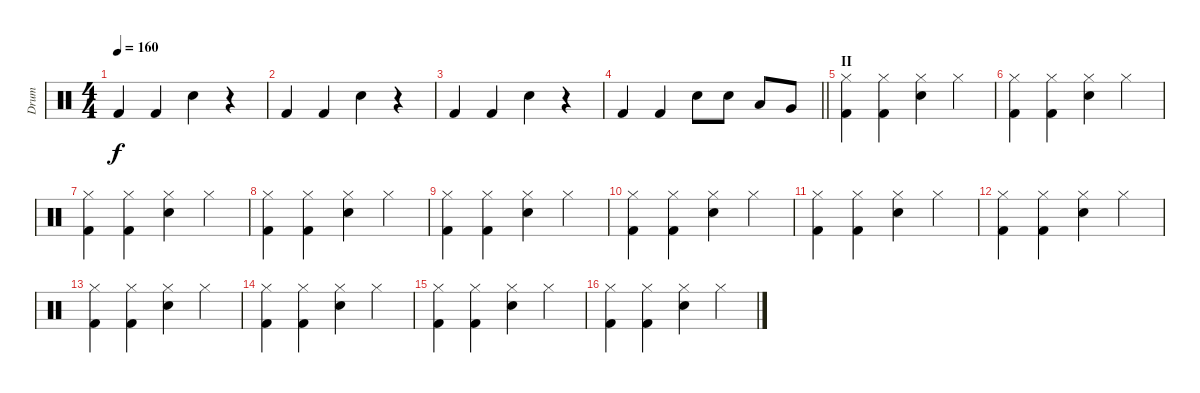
\track ("Drum" "Drum") {instrument percussion}
\staff {score}
\articulation defaults
\ts (4 4)
\tempo 160
\clef neutral
\ks c "Kick (hit) 2".4{dy f} "Kick (hit) 2".4 "Electric Snare (hit)".4
r.4 |
"Kick (hit) 2".4 "Kick (hit) 2".4 "Electric Snare (hit)".4 r.4 |
"Kick (hit) 2".4 "Kick (hit) 2".4 "Electric Snare (hit)".4 r.4 |
\barLineRight lightlight "Kick (hit) 2".4 "Kick (hit) 2".4 "Electric Snare (hit)".8 "Electric Snare (hit)".8 "Low Floor Tom (hit)".8 "Very Low Tom (hit)".8
|
\section ("" "II")
("Hi-Hat (closed)" "Kick (hit) 2").4 ("Hi-Hat (closed)" "Kick (hit) 2").4 ("Hi-Hat (closed)" "Electric Snare (hit)").4 "Hi-Hat (closed)".4 |
("Hi-Hat (closed)" "Kick (hit) 2").4 ("Hi-Hat (closed)" "Kick (hit) 2").4 ("Hi-Hat (closed)" "Electric Snare (hit)").4 "Hi-Hat (closed)".4 |
("Hi-Hat (closed)" "Kick (hit) 2").4 ("Hi-Hat (closed)" "Kick (hit) 2").4 ("Hi-Hat (closed)" "Electric Snare (hit)").4 "Hi-Hat (closed)".4 |
("Hi-Hat (closed)" "Kick (hit) 2").4 ("Hi-Hat (closed)" "Kick (hit) 2").4 ("Hi-Hat (closed)" "Electric Snare (hit)").4 "Hi-Hat (closed)".4 |
("Hi-Hat (closed)" "Kick (hit) 2").4 ("Hi-Hat (closed)" "Kick (hit) 2").4 ("Hi-Hat (closed)" "Electric Snare (hit)").4 "Hi-Hat (closed)".4 |
("Hi-Hat (closed)" "Kick (hit) 2").4 ("Hi-Hat (closed)" "Kick (hit) 2").4 ("Hi-Hat (closed)" "Electric Snare (hit)").4 "Hi-Hat (closed)".4 |
("Hi-Hat (closed)" "Kick (hit) 2").4 ("Hi-Hat (closed)" "Kick (hit) 2").4 ("Hi-Hat (closed)" "Electric Snare (hit)").4 "Hi-Hat (closed)".4 |
("Hi-Hat (closed)" "Kick (hit) 2").4 ("Hi-Hat (closed)" "Kick (hit) 2").4 ("Hi-Hat (closed)" "Electric Snare (hit)").4 "Hi-Hat (closed)".4 |
("Hi-Hat (closed)" "Kick (hit) 2").4 ("Hi-Hat (closed)" "Kick (hit) 2").4 ("Hi-Hat (closed)" "Electric Snare (hit)").4 "Hi-Hat (closed)".4 |
("Hi-Hat (closed)" "Kick (hit) 2").4 ("Hi-Hat (closed)" "Kick (hit) 2").4 ("Hi-Hat (closed)" "Electric Snare (hit)").4 "Hi-Hat (closed)".4 |
("Hi-Hat (closed)" "Kick (hit) 2").4 ("Hi-Hat (closed)" "Kick (hit) 2").4 ("Hi-Hat (closed)" "Electric Snare (hit)").4 "Hi-Hat (closed)".4 |
("Hi-Hat (closed)" "Kick (hit) 2").4 ("Hi-Hat (closed)" "Kick (hit) 2").4 ("Hi-Hat (closed)" "Electric Snare (hit)").4 "Hi-Hat (closed)".4
